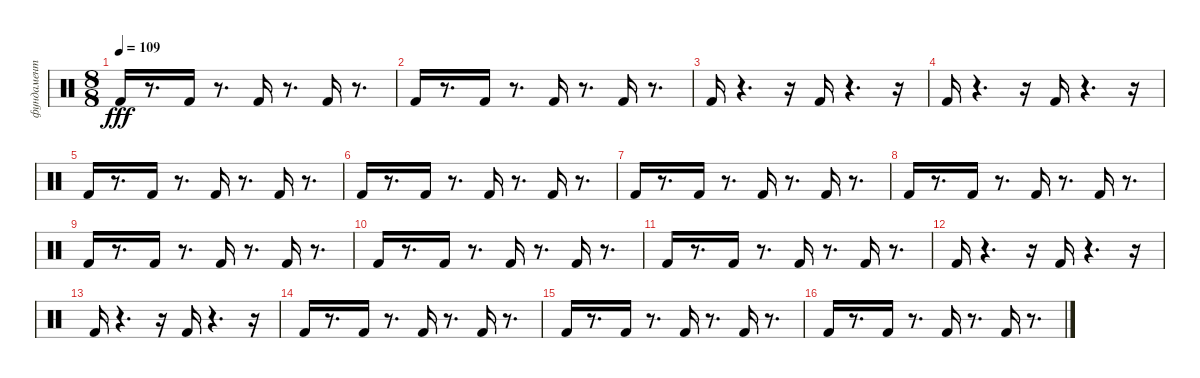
\track ("фундамент" "фундамент") {instrument percussion}
\staff {score}
\articulation defaults
\ts (8 8)
\tempo 109
\clef neutral
\ks c "Kick (hit) 2".16{dy fff}
r.8{d} "Kick (hit) 2".16 r.8{d} "Kick (hit) 2".16 r.8{d} "Kick (hit) 2".16 r.8{d} |
"Kick (hit) 2".16 r.8{d} "Kick (hit) 2".16 r.8{d} "Kick (hit) 2".16 r.8{d} "Kick (hit) 2".16 r.8{d} |
"Kick (hit) 2".16 r.4{d} r.16 "Kick (hit) 2".16 r.4{d} r.16 |
"Kick (hit) 2".16 r.4{d} r.16 "Kick (hit) 2".16 r.4{d} r.16 |
"Kick (hit) 2".16 r.8{d} "Kick (hit) 2".16 r.8{d} "Kick (hit) 2".16 r.8{d} "Kick (hit) 2".16 r.8{d} |
"Kick (hit) 2".16 r.8{d} "Kick (hit) 2".16 r.8{d} "Kick (hit) 2".16 r.8{d} "Kick (hit) 2".16 r.8{d} |
"Kick (hit) 2".16 r.8{d} "Kick (hit) 2".16 r.8{d} "Kick (hit) 2".16 r.8{d} "Kick (hit) 2".16 r.8{d} |
"Kick (hit) 2".16 r.8{d} "Kick (hit) 2".16 r.8{d} "Kick (hit) 2".16 r.8{d} "Kick (hit) 2".16 r.8{d} |
"Kick (hit) 2".16 r.8{d} "Kick (hit) 2".16 r.8{d} "Kick (hit) 2".16 r.8{d} "Kick (hit) 2".16 r.8{d} |
"Kick (hit) 2".16 r.8{d} "Kick (hit) 2".16 r.8{d} "Kick (hit) 2".16 r.8{d} "Kick (hit) 2".16 r.8{d} |
"Kick (hit) 2".16 r.8{d} "Kick (hit) 2".16 r.8{d} "Kick (hit) 2".16 r.8{d} "Kick (hit) 2".16 r.8{d} |
"Kick (hit) 2".16 r.4{d} r.16 "Kick (hit) 2".16 r.4{d} r.16 |
"Kick (hit) 2".16 r.4{d} r.16 "Kick (hit) 2".16 r.4{d} r.16 |
"Kick (hit) 2".16 r.8{d} "Kick (hit) 2".16 r.8{d} "Kick (hit) 2".16 r.8{d} "Kick (hit) 2".16 r.8{d} |
"Kick (hit) 2".16 r.8{d} "Kick (hit) 2".16 r.8{d} "Kick (hit) 2".16 r.8{d} "Kick (hit) 2".16 r.8{d} |
"Kick (hit) 2".16 r.8{d} "Kick (hit) 2".16 r.8{d} "Kick (hit) 2".16 r.8{d} "Kick (hit) 2".16 r.8{d}
